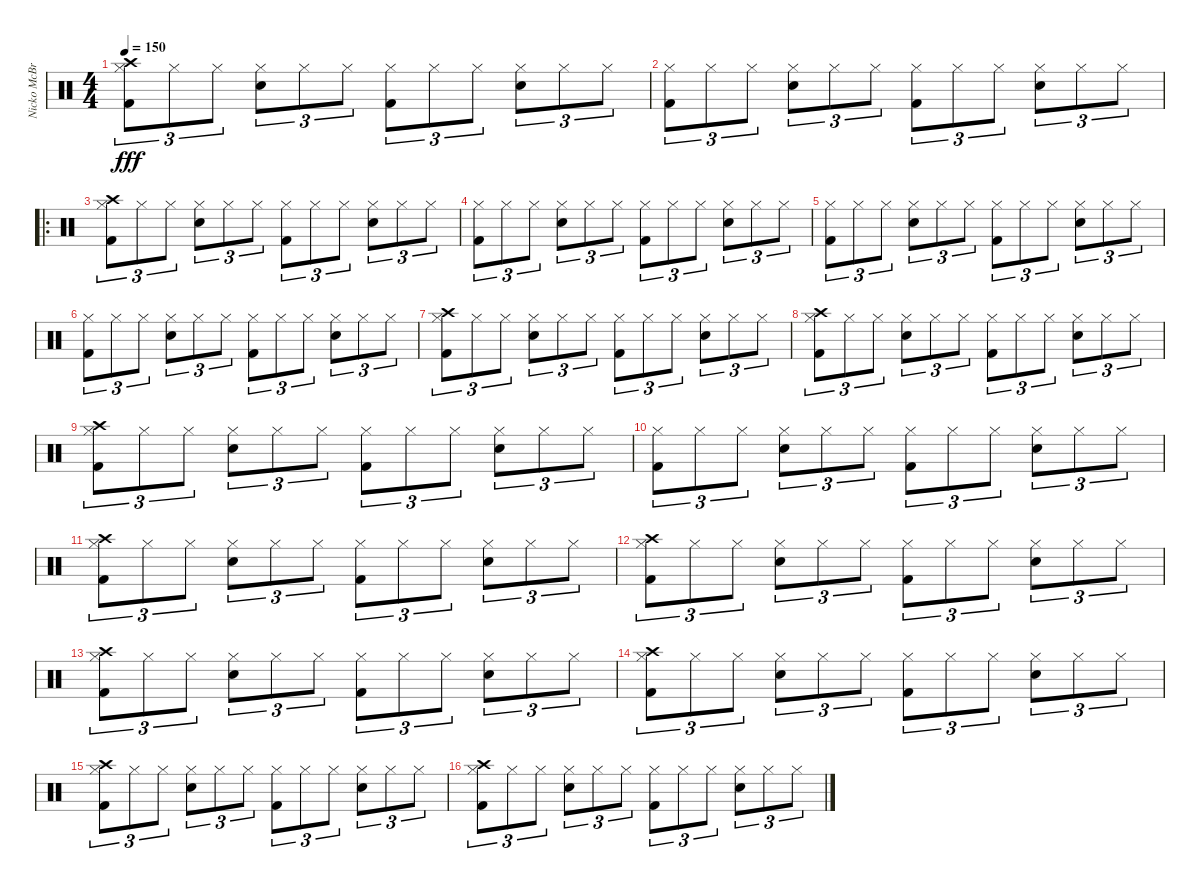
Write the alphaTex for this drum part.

\track ("Nicko McBrain" "Nicko McBr") {instrument percussion}
\staff {score}
\articulation defaults
\ts (4 4)
\tempo 150
\clef neutral
\ks c
("Hi-Hat (closed)" "Kick (hit) 2" "Crash high (hit)").8{tu (3 2) dy fff} "Hi-Hat (closed)".8{tu (3 2)} "Hi-Hat (closed)".8{tu (3 2)} ("Hi-Hat (closed)" "Snare (hit) 2").8{tu (3 2)} "Hi-Hat (closed)".8{tu (3 2)} "Hi-Hat (closed)".8{tu (3 2)} ("Hi-Hat (closed)" "Kick (hit) 2").8{tu (3 2)} "Hi-Hat (closed)".8{tu (3 2)} "Hi-Hat (closed)".8{tu (3 2)} ("Hi-Hat (closed)" "Snare (hit) 2").8{tu (3 2)} "Hi-Hat (closed)".8{tu (3 2)} "Hi-Hat (closed)".8{tu (3 2)} |
("Hi-Hat (closed)" "Kick (hit) 2").8{tu (3 2)} "Hi-Hat (closed)".8{tu (3 2)} "Hi-Hat (closed)".8{tu (3 2)} ("Hi-Hat (closed)" "Snare (hit) 2").8{tu (3 2)} "Hi-Hat (closed)".8{tu (3 2)} "Hi-Hat (closed)".8{tu (3 2)} ("Hi-Hat (closed)" "Kick (hit) 2").8{tu (3 2)} "Hi-Hat (closed)".8{tu (3 2)} "Hi-Hat (closed)".8{tu (3 2)} ("Hi-Hat (closed)" "Snare (hit) 2").8{tu (3 2)} "Hi-Hat (closed)".8{tu (3 2)} "Hi-Hat (closed)".8{tu (3 2)} |
\ro
("Hi-Hat (closed)" "Kick (hit) 2" "Crash high (hit)").8{tu (3 2)} "Hi-Hat (closed)".8{tu (3 2)} "Hi-Hat (closed)".8{tu (3 2)} ("Hi-Hat (closed)" "Snare (hit) 2").8{tu (3 2)} "Hi-Hat (closed)".8{tu (3 2)} "Hi-Hat (closed)".8{tu (3 2)} ("Hi-Hat (closed)" "Kick (hit) 2").8{tu (3 2)} "Hi-Hat (closed)".8{tu (3 2)} "Hi-Hat (closed)".8{tu (3 2)} ("Hi-Hat (closed)" "Snare (hit) 2").8{tu (3 2)} "Hi-Hat (closed)".8{tu (3 2)} "Hi-Hat (closed)".8{tu (3 2)} |
("Hi-Hat (closed)" "Kick (hit) 2").8{tu (3 2)} "Hi-Hat (closed)".8{tu (3 2)} "Hi-Hat (closed)".8{tu (3 2)} ("Hi-Hat (closed)" "Snare (hit) 2").8{tu (3 2)} "Hi-Hat (closed)".8{tu (3 2)} "Hi-Hat (closed)".8{tu (3 2)} ("Hi-Hat (closed)" "Kick (hit) 2").8{tu (3 2)} "Hi-Hat (closed)".8{tu (3 2)} "Hi-Hat (closed)".8{tu (3 2)} ("Hi-Hat (closed)" "Snare (hit) 2").8{tu (3 2)} "Hi-Hat (closed)".8{tu (3 2)} "Hi-Hat (closed)".8{tu (3 2)} |
("Hi-Hat (closed)" "Kick (hit) 2").8{tu (3 2)} "Hi-Hat (closed)".8{tu (3 2)} "Hi-Hat (closed)".8{tu (3 2)} ("Hi-Hat (closed)" "Snare (hit) 2").8{tu (3 2)} "Hi-Hat (closed)".8{tu (3 2)} "Hi-Hat (closed)".8{tu (3 2)} ("Hi-Hat (closed)" "Kick (hit) 2").8{tu (3 2)} "Hi-Hat (closed)".8{tu (3 2)} "Hi-Hat (closed)".8{tu (3 2)} ("Hi-Hat (closed)" "Snare (hit) 2").8{tu (3 2)} "Hi-Hat (closed)".8{tu (3 2)} "Hi-Hat (closed)".8{tu (3 2)} |
("Hi-Hat (closed)" "Kick (hit) 2").8{tu (3 2)} "Hi-Hat (closed)".8{tu (3 2)} "Hi-Hat (closed)".8{tu (3 2)} ("Hi-Hat (closed)" "Snare (hit) 2").8{tu (3 2)} "Hi-Hat (closed)".8{tu (3 2)} "Hi-Hat (closed)".8{tu (3 2)} ("Hi-Hat (closed)" "Kick (hit) 2").8{tu (3 2)} "Hi-Hat (closed)".8{tu (3 2)} "Hi-Hat (closed)".8{tu (3 2)} ("Hi-Hat (closed)" "Snare (hit) 2").8{tu (3 2)} "Hi-Hat (closed)".8{tu (3 2)} "Hi-Hat (closed)".8{tu (3 2)} |
("Hi-Hat (closed)" "Kick (hit) 2" "Crash high (hit)").8{tu (3 2)} "Hi-Hat (closed)".8{tu (3 2)} "Hi-Hat (closed)".8{tu (3 2)} ("Hi-Hat (closed)" "Snare (hit) 2").8{tu (3 2)} "Hi-Hat (closed)".8{tu (3 2)} "Hi-Hat (closed)".8{tu (3 2)} ("Hi-Hat (closed)" "Kick (hit) 2").8{tu (3 2)} "Hi-Hat (closed)".8{tu (3 2)} "Hi-Hat (closed)".8{tu (3 2)} ("Hi-Hat (closed)" "Snare (hit) 2").8{tu (3 2)} "Hi-Hat (closed)".8{tu (3 2)} "Hi-Hat (closed)".8{tu (3 2)} |
("Hi-Hat (closed)" "Kick (hit) 2" "Crash high (hit)").8{tu (3 2)} "Hi-Hat (closed)".8{tu (3 2)} "Hi-Hat (closed)".8{tu (3 2)} ("Hi-Hat (closed)" "Snare (hit) 2").8{tu (3 2)} "Hi-Hat (closed)".8{tu (3 2)} "Hi-Hat (closed)".8{tu (3 2)} ("Hi-Hat (closed)" "Kick (hit) 2").8{tu (3 2)} "Hi-Hat (closed)".8{tu (3 2)} "Hi-Hat (closed)".8{tu (3 2)} ("Hi-Hat (closed)" "Snare (hit) 2").8{tu (3 2)} "Hi-Hat (closed)".8{tu (3 2)} "Hi-Hat (closed)".8{tu (3 2)} |
("Hi-Hat (closed)" "Kick (hit) 2" "Crash high (hit)").8{tu (3 2)} "Hi-Hat (closed)".8{tu (3 2)} "Hi-Hat (closed)".8{tu (3 2)} ("Hi-Hat (closed)" "Snare (hit) 2").8{tu (3 2)} "Hi-Hat (closed)".8{tu (3 2)} "Hi-Hat (closed)".8{tu (3 2)} ("Hi-Hat (closed)" "Kick (hit) 2").8{tu (3 2)} "Hi-Hat (closed)".8{tu (3 2)} "Hi-Hat (closed)".8{tu (3 2)} ("Hi-Hat (closed)" "Snare (hit) 2").8{tu (3 2)} "Hi-Hat (closed)".8{tu (3 2)} "Hi-Hat (closed)".8{tu (3 2)} |
("Hi-Hat (closed)" "Kick (hit) 2").8{tu (3 2)} "Hi-Hat (closed)".8{tu (3 2)} "Hi-Hat (closed)".8{tu (3 2)} ("Hi-Hat (closed)" "Snare (hit) 2").8{tu (3 2)} "Hi-Hat (closed)".8{tu (3 2)} "Hi-Hat (closed)".8{tu (3 2)} ("Hi-Hat (closed)" "Kick (hit) 2").8{tu (3 2)} "Hi-Hat (closed)".8{tu (3 2)} "Hi-Hat (closed)".8{tu (3 2)} ("Hi-Hat (closed)" "Snare (hit) 2").8{tu (3 2)} "Hi-Hat (closed)".8{tu (3 2)} "Hi-Hat (closed)".8{tu (3 2)} |
("Hi-Hat (closed)" "Kick (hit) 2" "Crash high (hit)").8{tu (3 2)} "Hi-Hat (closed)".8{tu (3 2)} "Hi-Hat (closed)".8{tu (3 2)} ("Hi-Hat (closed)" "Snare (hit) 2").8{tu (3 2)} "Hi-Hat (closed)".8{tu (3 2)} "Hi-Hat (closed)".8{tu (3 2)} ("Hi-Hat (closed)" "Kick (hit) 2").8{tu (3 2)} "Hi-Hat (closed)".8{tu (3 2)} "Hi-Hat (closed)".8{tu (3 2)} ("Hi-Hat (closed)" "Snare (hit) 2").8{tu (3 2)} "Hi-Hat (closed)".8{tu (3 2)} "Hi-Hat (closed)".8{tu (3 2)} |
("Hi-Hat (closed)" "Kick (hit) 2" "Crash high (hit)").8{tu (3 2)} "Hi-Hat (closed)".8{tu (3 2)} "Hi-Hat (closed)".8{tu (3 2)} ("Hi-Hat (closed)" "Snare (hit) 2").8{tu (3 2)} "Hi-Hat (closed)".8{tu (3 2)} "Hi-Hat (closed)".8{tu (3 2)} ("Hi-Hat (closed)" "Kick (hit) 2").8{tu (3 2)} "Hi-Hat (closed)".8{tu (3 2)} "Hi-Hat (closed)".8{tu (3 2)} ("Hi-Hat (closed)" "Snare (hit) 2").8{tu (3 2)} "Hi-Hat (closed)".8{tu (3 2)} "Hi-Hat (closed)".8{tu (3 2)} |
("Hi-Hat (closed)" "Kick (hit) 2" "Crash high (hit)").8{tu (3 2)} "Hi-Hat (closed)".8{tu (3 2)} "Hi-Hat (closed)".8{tu (3 2)} ("Hi-Hat (closed)" "Snare (hit) 2").8{tu (3 2)} "Hi-Hat (closed)".8{tu (3 2)} "Hi-Hat (closed)".8{tu (3 2)} ("Hi-Hat (closed)" "Kick (hit) 2").8{tu (3 2)} "Hi-Hat (closed)".8{tu (3 2)} "Hi-Hat (closed)".8{tu (3 2)} ("Hi-Hat (closed)" "Snare (hit) 2").8{tu (3 2)} "Hi-Hat (closed)".8{tu (3 2)} "Hi-Hat (closed)".8{tu (3 2)} |
("Hi-Hat (closed)" "Kick (hit) 2" "Crash high (hit)").8{tu (3 2)} "Hi-Hat (closed)".8{tu (3 2)} "Hi-Hat (closed)".8{tu (3 2)} ("Hi-Hat (closed)" "Snare (hit) 2").8{tu (3 2)} "Hi-Hat (closed)".8{tu (3 2)} "Hi-Hat (closed)".8{tu (3 2)} ("Hi-Hat (closed)" "Kick (hit) 2").8{tu (3 2)} "Hi-Hat (closed)".8{tu (3 2)} "Hi-Hat (closed)".8{tu (3 2)} ("Hi-Hat (closed)" "Snare (hit) 2").8{tu (3 2)} "Hi-Hat (closed)".8{tu (3 2)} "Hi-Hat (closed)".8{tu (3 2)} |
("Hi-Hat (closed)" "Kick (hit) 2" "Crash high (hit)").8{tu (3 2)} "Hi-Hat (closed)".8{tu (3 2)} "Hi-Hat (closed)".8{tu (3 2)} ("Hi-Hat (closed)" "Snare (hit) 2").8{tu (3 2)} "Hi-Hat (closed)".8{tu (3 2)} "Hi-Hat (closed)".8{tu (3 2)} ("Hi-Hat (closed)" "Kick (hit) 2").8{tu (3 2)} "Hi-Hat (closed)".8{tu (3 2)} "Hi-Hat (closed)".8{tu (3 2)} ("Hi-Hat (closed)" "Snare (hit) 2").8{tu (3 2)} "Hi-Hat (closed)".8{tu (3 2)} "Hi-Hat (closed)".8{tu (3 2)} |
("Hi-Hat (closed)" "Kick (hit) 2" "Crash high (hit)").8{tu (3 2)} "Hi-Hat (closed)".8{tu (3 2)} "Hi-Hat (closed)".8{tu (3 2)} ("Hi-Hat (closed)" "Snare (hit) 2").8{tu (3 2)} "Hi-Hat (closed)".8{tu (3 2)} "Hi-Hat (closed)".8{tu (3 2)} ("Hi-Hat (closed)" "Kick (hit) 2").8{tu (3 2)} "Hi-Hat (closed)".8{tu (3 2)} "Hi-Hat (closed)".8{tu (3 2)} ("Hi-Hat (closed)" "Snare (hit) 2").8{tu (3 2)} "Hi-Hat (closed)".8{tu (3 2)} "Hi-Hat (closed)".8{tu (3 2)}
